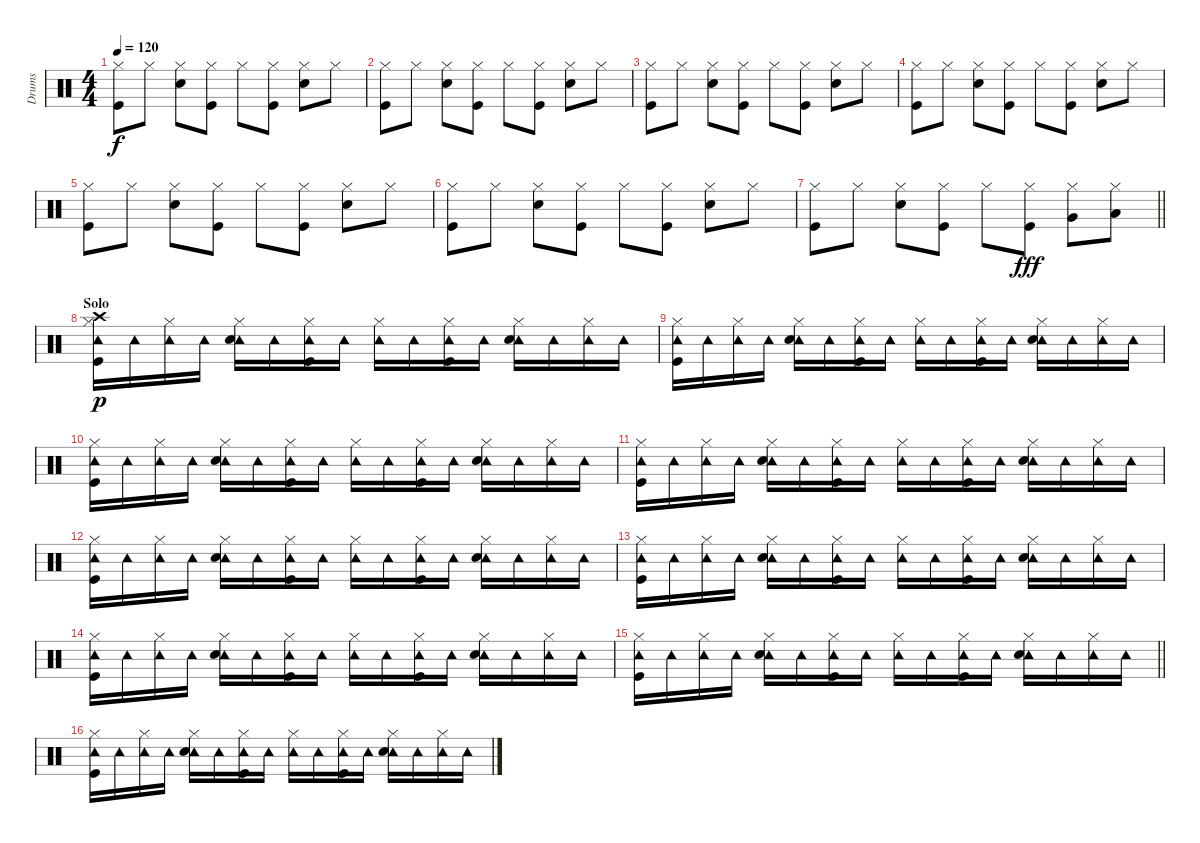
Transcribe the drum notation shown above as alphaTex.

\track ("Drums" "Drums") {instrument percussion}
\staff {score}
\articulation defaults
\ts (4 4)
\tempo 120
\clef neutral
\ks c
("Hi-Hat (closed)" "Kick (hit)").8{dy f} "Hi-Hat (closed)".8 ("Hi-Hat (closed)" "Snare (hit) 2").8 ("Hi-Hat (closed)" "Kick (hit)").8 "Hi-Hat (closed)".8 ("Hi-Hat (closed)" "Kick (hit)").8 ("Hi-Hat (closed)" "Snare (hit) 2").8 "Hi-Hat (closed)".8 |
("Hi-Hat (closed)" "Kick (hit)").8 "Hi-Hat (closed)".8 ("Hi-Hat (closed)" "Snare (hit) 2").8 ("Hi-Hat (closed)" "Kick (hit)").8 "Hi-Hat (closed)".8 ("Hi-Hat (closed)" "Kick (hit)").8 ("Hi-Hat (closed)" "Snare (hit) 2").8 "Hi-Hat (closed)".8 |
("Hi-Hat (closed)" "Kick (hit)").8 "Hi-Hat (closed)".8 ("Hi-Hat (closed)" "Snare (hit) 2").8 ("Hi-Hat (closed)" "Kick (hit)").8 "Hi-Hat (closed)".8 ("Hi-Hat (closed)" "Kick (hit)").8 ("Hi-Hat (closed)" "Snare (hit) 2").8 "Hi-Hat (closed)".8 |
("Hi-Hat (closed)" "Kick (hit)").8 "Hi-Hat (closed)".8 ("Hi-Hat (closed)" "Snare (hit) 2").8 ("Hi-Hat (closed)" "Kick (hit)").8 "Hi-Hat (closed)".8 ("Hi-Hat (closed)" "Kick (hit)").8 ("Hi-Hat (closed)" "Snare (hit) 2").8 "Hi-Hat (closed)".8 |
("Hi-Hat (closed)" "Kick (hit)").8 "Hi-Hat (closed)".8 ("Hi-Hat (closed)" "Snare (hit) 2").8 ("Hi-Hat (closed)" "Kick (hit)").8 "Hi-Hat (closed)".8 ("Hi-Hat (closed)" "Kick (hit)").8 ("Hi-Hat (closed)" "Snare (hit) 2").8 "Hi-Hat (closed)".8 |
("Hi-Hat (closed)" "Kick (hit)").8 "Hi-Hat (closed)".8 ("Hi-Hat (closed)" "Snare (hit) 2").8 ("Hi-Hat (closed)" "Kick (hit)").8 "Hi-Hat (closed)".8 ("Hi-Hat (closed)" "Kick (hit)").8 ("Hi-Hat (closed)" "Snare (hit) 2").8 "Hi-Hat (closed)".8 |
\barLineRight lightlight
("Hi-Hat (closed)" "Kick (hit)").8 "Hi-Hat (closed)".8 ("Hi-Hat (closed)" "Snare (hit) 2").8 ("Hi-Hat (closed)" "Kick (hit)").8 "Hi-Hat (closed)".8 ("Hi-Hat (closed)" "Kick (hit)").8{dy fff} ("Hi-Hat (closed)" "Very Low Tom (hit)").8 ("Hi-Hat (closed)" "Low Floor Tom (hit)").8 |
\section ("" "Solo")
("Crash high (hit)" "Tambourine (hit)" "Hi-Hat (closed)" "Kick (hit)").16{dy p} "Tambourine (hit)".16 ("Tambourine (hit)" "Hi-Hat (closed)").16 "Tambourine (hit)".16 ("Tambourine (hit)" "Hi-Hat (closed)" "Snare (hit) 2").16 "Tambourine (hit)".16 ("Tambourine (hit)" "Hi-Hat (closed)" "Kick (hit)").16 "Tambourine (hit)".16 ("Tambourine (hit)" "Hi-Hat (closed)").16 "Tambourine (hit)".16 ("Tambourine (hit)" "Hi-Hat (closed)" "Kick (hit)").16 "Tambourine (hit)".16 ("Tambourine (hit)" "Hi-Hat (closed)" "Snare (hit) 2").16 "Tambourine (hit)".16 ("Tambourine (hit)" "Hi-Hat (closed)").16 "Tambourine (hit)".16 |
("Tambourine (hit)" "Hi-Hat (closed)" "Kick (hit)").16 "Tambourine (hit)".16 ("Tambourine (hit)" "Hi-Hat (closed)").16 "Tambourine (hit)".16 ("Tambourine (hit)" "Hi-Hat (closed)" "Snare (hit) 2").16 "Tambourine (hit)".16 ("Tambourine (hit)" "Hi-Hat (closed)" "Kick (hit)").16 "Tambourine (hit)".16 ("Tambourine (hit)" "Hi-Hat (closed)").16 "Tambourine (hit)".16 ("Tambourine (hit)" "Hi-Hat (closed)" "Kick (hit)").16 "Tambourine (hit)".16 ("Tambourine (hit)" "Hi-Hat (closed)" "Snare (hit) 2").16 "Tambourine (hit)".16 ("Tambourine (hit)" "Hi-Hat (closed)").16 "Tambourine (hit)".16 |
("Tambourine (hit)" "Hi-Hat (closed)" "Kick (hit)").16 "Tambourine (hit)".16 ("Tambourine (hit)" "Hi-Hat (closed)").16 "Tambourine (hit)".16 ("Tambourine (hit)" "Hi-Hat (closed)" "Snare (hit) 2").16 "Tambourine (hit)".16 ("Tambourine (hit)" "Hi-Hat (closed)" "Kick (hit)").16 "Tambourine (hit)".16 ("Tambourine (hit)" "Hi-Hat (closed)").16 "Tambourine (hit)".16 ("Tambourine (hit)" "Hi-Hat (closed)" "Kick (hit)").16 "Tambourine (hit)".16 ("Tambourine (hit)" "Hi-Hat (closed)" "Snare (hit) 2").16 "Tambourine (hit)".16 ("Tambourine (hit)" "Hi-Hat (closed)").16 "Tambourine (hit)".16 |
("Tambourine (hit)" "Hi-Hat (closed)" "Kick (hit)").16 "Tambourine (hit)".16 ("Tambourine (hit)" "Hi-Hat (closed)").16 "Tambourine (hit)".16 ("Tambourine (hit)" "Hi-Hat (closed)" "Snare (hit) 2").16 "Tambourine (hit)".16 ("Tambourine (hit)" "Hi-Hat (closed)" "Kick (hit)").16 "Tambourine (hit)".16 ("Tambourine (hit)" "Hi-Hat (closed)").16 "Tambourine (hit)".16 ("Tambourine (hit)" "Hi-Hat (closed)" "Kick (hit)").16 "Tambourine (hit)".16 ("Tambourine (hit)" "Hi-Hat (closed)" "Snare (hit) 2").16 "Tambourine (hit)".16 ("Tambourine (hit)" "Hi-Hat (closed)").16 "Tambourine (hit)".16 |
("Tambourine (hit)" "Hi-Hat (closed)" "Kick (hit)").16 "Tambourine (hit)".16 ("Tambourine (hit)" "Hi-Hat (closed)").16 "Tambourine (hit)".16 ("Tambourine (hit)" "Hi-Hat (closed)" "Snare (hit) 2").16 "Tambourine (hit)".16 ("Tambourine (hit)" "Hi-Hat (closed)" "Kick (hit)").16 "Tambourine (hit)".16 ("Tambourine (hit)" "Hi-Hat (closed)").16 "Tambourine (hit)".16 ("Tambourine (hit)" "Hi-Hat (closed)" "Kick (hit)").16 "Tambourine (hit)".16 ("Tambourine (hit)" "Hi-Hat (closed)" "Snare (hit) 2").16 "Tambourine (hit)".16 ("Tambourine (hit)" "Hi-Hat (closed)").16 "Tambourine (hit)".16 |
("Tambourine (hit)" "Hi-Hat (closed)" "Kick (hit)").16 "Tambourine (hit)".16 ("Tambourine (hit)" "Hi-Hat (closed)").16 "Tambourine (hit)".16 ("Tambourine (hit)" "Hi-Hat (closed)" "Snare (hit) 2").16 "Tambourine (hit)".16 ("Tambourine (hit)" "Hi-Hat (closed)" "Kick (hit)").16 "Tambourine (hit)".16 ("Tambourine (hit)" "Hi-Hat (closed)").16 "Tambourine (hit)".16 ("Tambourine (hit)" "Hi-Hat (closed)" "Kick (hit)").16 "Tambourine (hit)".16 ("Tambourine (hit)" "Hi-Hat (closed)" "Snare (hit) 2").16 "Tambourine (hit)".16 ("Tambourine (hit)" "Hi-Hat (closed)").16 "Tambourine (hit)".16 |
("Tambourine (hit)" "Hi-Hat (closed)" "Kick (hit)").16 "Tambourine (hit)".16 ("Tambourine (hit)" "Hi-Hat (closed)").16 "Tambourine (hit)".16 ("Tambourine (hit)" "Hi-Hat (closed)" "Snare (hit) 2").16 "Tambourine (hit)".16 ("Tambourine (hit)" "Hi-Hat (closed)" "Kick (hit)").16 "Tambourine (hit)".16 ("Tambourine (hit)" "Hi-Hat (closed)").16 "Tambourine (hit)".16 ("Tambourine (hit)" "Hi-Hat (closed)" "Kick (hit)").16 "Tambourine (hit)".16 ("Tambourine (hit)" "Hi-Hat (closed)" "Snare (hit) 2").16 "Tambourine (hit)".16 ("Tambourine (hit)" "Hi-Hat (closed)").16 "Tambourine (hit)".16 |
\barLineRight lightlight
("Tambourine (hit)" "Hi-Hat (closed)" "Kick (hit)").16 "Tambourine (hit)".16 ("Tambourine (hit)" "Hi-Hat (closed)").16 "Tambourine (hit)".16 ("Tambourine (hit)" "Hi-Hat (closed)" "Snare (hit) 2").16 "Tambourine (hit)".16 ("Tambourine (hit)" "Hi-Hat (closed)" "Kick (hit)").16 "Tambourine (hit)".16 ("Tambourine (hit)" "Hi-Hat (closed)").16 "Tambourine (hit)".16 ("Tambourine (hit)" "Hi-Hat (closed)" "Kick (hit)").16 "Tambourine (hit)".16 ("Tambourine (hit)" "Hi-Hat (closed)" "Snare (hit) 2").16 "Tambourine (hit)".16 ("Tambourine (hit)" "Hi-Hat (closed)").16 "Tambourine (hit)".16 |
("Tambourine (hit)" "Hi-Hat (closed)" "Kick (hit)").16 "Tambourine (hit)".16 ("Tambourine (hit)" "Hi-Hat (closed)").16 "Tambourine (hit)".16 ("Tambourine (hit)" "Hi-Hat (closed)" "Snare (hit) 2").16 "Tambourine (hit)".16 ("Tambourine (hit)" "Hi-Hat (closed)" "Kick (hit)").16 "Tambourine (hit)".16 ("Tambourine (hit)" "Hi-Hat (closed)").16 "Tambourine (hit)".16 ("Tambourine (hit)" "Hi-Hat (closed)" "Kick (hit)").16 "Tambourine (hit)".16 ("Tambourine (hit)" "Hi-Hat (closed)" "Snare (hit) 2").16 "Tambourine (hit)".16 ("Tambourine (hit)" "Hi-Hat (closed)").16 "Tambourine (hit)".16
